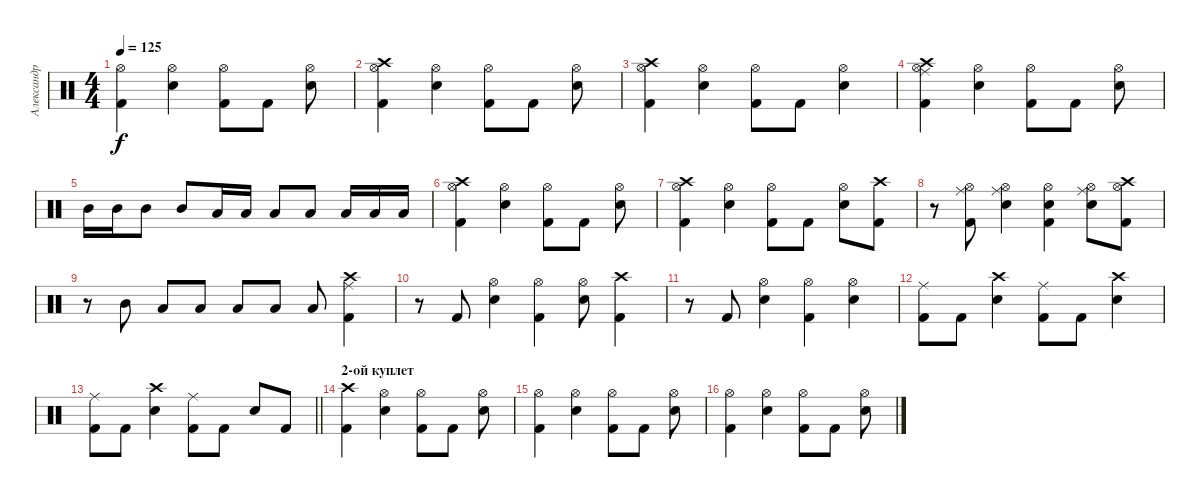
\track ("Александр Манякин" "Александр ") {instrument percussion}
\staff {score}
\articulation defaults
\ts (4 4)
\tempo 125
\clef neutral
\ks c
("Hi-Hat (open)" "Kick (hit) 2").4{dy f} ("Hi-Hat (open)" "Snare (hit) 2").4 ("Hi-Hat (open)" "Kick (hit) 2").8 "Kick (hit) 2".8 ("Hi-Hat (open)" "Snare (hit) 2").8 |
("Hi-Hat (open)" "Kick (hit) 2" "Crash high (hit)").4 ("Hi-Hat (open)" "Snare (hit) 2").4 ("Hi-Hat (open)" "Kick (hit) 2").8 "Kick (hit) 2".8 ("Hi-Hat (open)" "Snare (hit) 2").8 |
("Hi-Hat (open)" "Kick (hit) 2" "Crash high (hit)").4 ("Hi-Hat (open)" "Snare (hit) 2").4 ("Hi-Hat (open)" "Kick (hit) 2").8 "Kick (hit) 2".8 ("Hi-Hat (open)" "Snare (hit) 2").4 |
("Crash high (hit)" "Kick (hit) 2" "Hi-Hat (open)" "Ride (middle)").4 ("Hi-Hat (open)" "Snare (hit) 2").4 ("Hi-Hat (open)" "Kick (hit) 2").8 "Kick (hit) 2".8 ("Hi-Hat (open)" "Snare (hit) 2").8 |
"Mid Tom (hit)".16 "Mid Tom (hit)".16 "Mid Tom (hit)".8 "Mid Tom (hit)".8 "Low Tom (hit)".16 "Low Tom (hit)".16 "Low Tom (hit)".8 "Low Tom (hit)".8 "Low Floor Tom (hit)".16 "Low Floor Tom (hit)".16 "Low Floor Tom (hit)".16 |
("Hi-Hat (open)" "Kick (hit) 2" "Crash high (hit)").4 ("Hi-Hat (open)" "Snare (hit) 2").4 ("Hi-Hat (open)" "Kick (hit) 2").8 "Kick (hit) 2".8 ("Hi-Hat (open)" "Snare (hit) 2").8 |
("Hi-Hat (open)" "Kick (hit) 2" "Crash high (hit)").4 ("Hi-Hat (open)" "Snare (hit) 2").4 ("Hi-Hat (open)" "Kick (hit) 2").8 "Kick (hit) 2".8 ("Hi-Hat (open)" "Snare (hit) 2").8 ("Crash high (hit)" "Kick (hit) 2").8 |
r.8 ("Hi-Hat (open)" "Ride (middle)" "Kick (hit) 2").8 ("Hi-Hat (open)" "Ride (middle)" "Snare (hit) 2").4 ("Hi-Hat (open)" "Snare (hit)" "Kick (hit) 2").4 ("Hi-Hat (open)" "Ride (middle)" "Snare (hit) 2").8 ("Hi-Hat (open)" "Crash high (hit)" "Kick (hit) 2").8 |
r.8 "Mid Tom (hit)".8 "Low Tom (hit)".8 "Low Tom (hit)".8 "Low Tom (hit)".8 "Low Tom (hit)".8 "Low Floor Tom (hit)".8 ("Ride (middle)" "Crash high (hit)" "Kick (hit) 2").4 |
r.8 "Kick (hit) 2".8 ("Hi-Hat (open)" "Snare (hit) 2").4 ("Hi-Hat (open)" "Kick (hit) 2").4 ("Hi-Hat (open)" "Snare (hit) 2").8 ("Crash high (hit)" "Kick (hit) 2").4 |
r.8 "Kick (hit) 2".8 ("Hi-Hat (open)" "Snare (hit) 2").4 ("Hi-Hat (open)" "Kick (hit) 2").4 ("Hi-Hat (open)" "Snare (hit) 2").4 |
("Kick (hit) 2" "Ride (middle)").8 "Kick (hit) 2".8 ("Crash high (hit)" "Snare (hit) 2").4 ("Kick (hit) 2" "Ride (middle)").8 "Kick (hit) 2".8 ("Crash high (hit)" "Snare (hit) 2").4 |
\barLineRight lightlight
("Kick (hit) 2" "Ride (middle)").8 "Kick (hit) 2".8 ("Crash high (hit)" "Snare (hit) 2").4 ("Kick (hit) 2" "Ride (middle)").8 "Kick (hit) 2".8 "Snare (hit) 2".8 "Kick (hit) 2".8 |
\section ("" "2-ой куплет")
("Crash high (hit)" "Kick (hit) 2").4 ("Hi-Hat (open)" "Snare (hit) 2").4 ("Hi-Hat (open)" "Kick (hit) 2").8 "Kick (hit) 2".8 ("Hi-Hat (open)" "Snare (hit) 2").8 |
("Hi-Hat (open)" "Kick (hit) 2").4 ("Hi-Hat (open)" "Snare (hit) 2").4 ("Hi-Hat (open)" "Kick (hit) 2").8 "Kick (hit) 2".8 ("Hi-Hat (open)" "Snare (hit) 2").8 |
("Hi-Hat (open)" "Kick (hit) 2").4 ("Hi-Hat (open)" "Snare (hit) 2").4 ("Hi-Hat (open)" "Kick (hit) 2").8 "Kick (hit) 2".8 ("Hi-Hat (open)" "Snare (hit) 2").8
